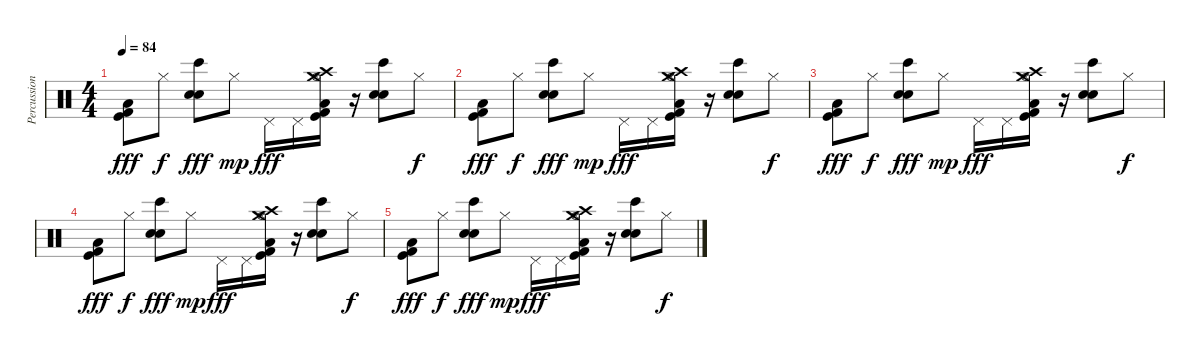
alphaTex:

\track ("Percussion" "Percussion") {instrument percussion}
\staff {score}
\articulation defaults
\ts (4 4)
\tempo 84
\clef neutral
\ks c
("Low Floor Tom (hit)" "Kick (hit)" "Kick (hit) 2").8{dy fff} "Hi-Hat (closed)".8{dy f} ("Bongo High (hit)" "Electric Snare (hit)" "Snare (hit) 2").8{dy fff} "Hi-Hat (closed)".8{dy mp} "Pedal Hi-Hat (hit)".16{dy fff} "Pedal Hi-Hat (hit)".16 ("Low Floor Tom (hit)" "Crash medium (hit)" "Crash high (hit)" "Hi-Hat (open)" "Kick (hit)" "Kick (hit) 2").16 r.16 ("Bongo High (hit)" "Electric Snare (hit)" "Snare (hit) 2").8 "Hi-Hat (closed)".8{dy f} |
("Low Floor Tom (hit)" "Kick (hit)" "Kick (hit) 2").8{dy fff} "Hi-Hat (closed)".8{dy f} ("Bongo High (hit)" "Electric Snare (hit)" "Snare (hit) 2").8{dy fff} "Hi-Hat (closed)".8{dy mp} "Pedal Hi-Hat (hit)".16{dy fff} "Pedal Hi-Hat (hit)".16 ("Low Floor Tom (hit)" "Crash medium (hit)" "Crash high (hit)" "Hi-Hat (open)" "Kick (hit)" "Kick (hit) 2").16 r.16 ("Bongo High (hit)" "Electric Snare (hit)" "Snare (hit) 2").8 "Hi-Hat (closed)".8{dy f} |
("Low Floor Tom (hit)" "Kick (hit)" "Kick (hit) 2").8{dy fff} "Hi-Hat (closed)".8{dy f} ("Bongo High (hit)" "Electric Snare (hit)" "Snare (hit) 2").8{dy fff} "Hi-Hat (closed)".8{dy mp} "Pedal Hi-Hat (hit)".16{dy fff} "Pedal Hi-Hat (hit)".16 ("Low Floor Tom (hit)" "Crash medium (hit)" "Crash high (hit)" "Hi-Hat (open)" "Kick (hit)" "Kick (hit) 2").16 r.16 ("Bongo High (hit)" "Electric Snare (hit)" "Snare (hit) 2").8 "Hi-Hat (closed)".8{dy f} |
("Low Floor Tom (hit)" "Kick (hit)" "Kick (hit) 2").8{dy fff} "Hi-Hat (closed)".8{dy f} ("Bongo High (hit)" "Electric Snare (hit)" "Snare (hit) 2").8{dy fff} "Hi-Hat (closed)".8{dy mp} "Pedal Hi-Hat (hit)".16{dy fff} "Pedal Hi-Hat (hit)".16 ("Low Floor Tom (hit)" "Crash medium (hit)" "Crash high (hit)" "Hi-Hat (open)" "Kick (hit)" "Kick (hit) 2").16 r.16 ("Bongo High (hit)" "Electric Snare (hit)" "Snare (hit) 2").8 "Hi-Hat (closed)".8{dy f} |
("Low Floor Tom (hit)" "Kick (hit)" "Kick (hit) 2").8{dy fff} "Hi-Hat (closed)".8{dy f} ("Bongo High (hit)" "Electric Snare (hit)" "Snare (hit) 2").8{dy fff} "Hi-Hat (closed)".8{dy mp} "Pedal Hi-Hat (hit)".16{dy fff} "Pedal Hi-Hat (hit)".16 ("Low Floor Tom (hit)" "Crash medium (hit)" "Crash high (hit)" "Hi-Hat (open)" "Kick (hit)" "Kick (hit) 2").16 r.16 ("Bongo High (hit)" "Electric Snare (hit)" "Snare (hit) 2").8 "Hi-Hat (closed)".8{dy f}
